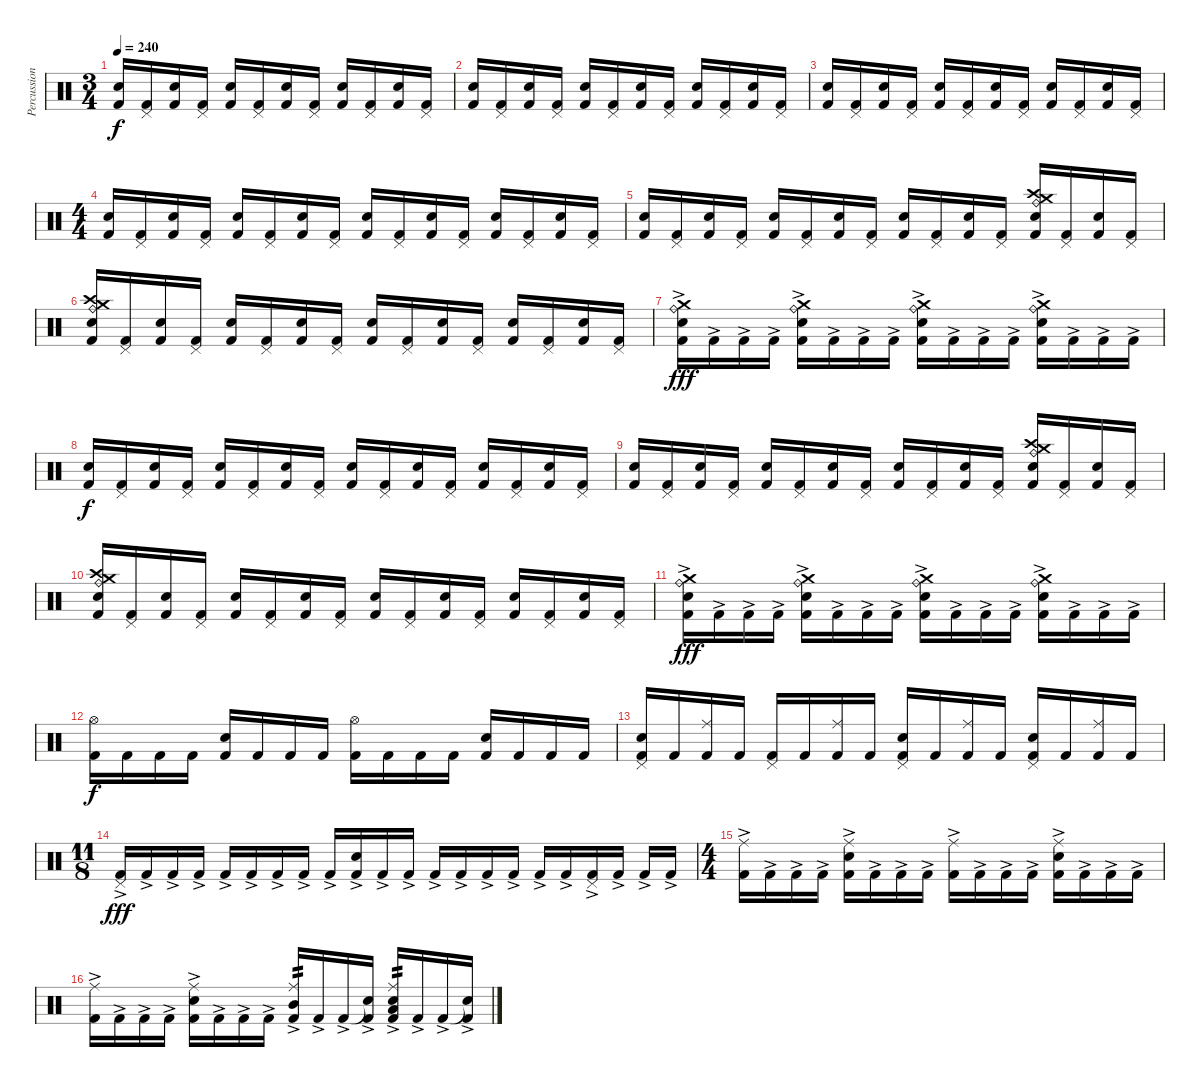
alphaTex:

\track ("Percussions" "Percussion") {instrument percussion}
\staff {score}
\articulation defaults
\ts (3 4)
\tempo 240
\clef neutral
\ks c
("Snare (hit) 2" "Kick (hit) 2").16{dy f} ("Pedal Hi-Hat (hit)" "Kick (hit) 2").16 ("Snare (hit) 2" "Kick (hit) 2").16 ("Pedal Hi-Hat (hit)" "Kick (hit) 2").16 ("Snare (hit) 2" "Kick (hit) 2").16 ("Pedal Hi-Hat (hit)" "Kick (hit) 2").16 ("Snare (hit) 2" "Kick (hit) 2").16 ("Pedal Hi-Hat (hit)" "Kick (hit) 2").16 ("Snare (hit) 2" "Kick (hit) 2").16 ("Pedal Hi-Hat (hit)" "Kick (hit) 2").16 ("Snare (hit) 2" "Kick (hit) 2").16 ("Pedal Hi-Hat (hit)" "Kick (hit) 2").16 |
("Snare (hit) 2" "Kick (hit) 2").16 ("Pedal Hi-Hat (hit)" "Kick (hit) 2").16 ("Snare (hit) 2" "Kick (hit) 2").16 ("Pedal Hi-Hat (hit)" "Kick (hit) 2").16 ("Snare (hit) 2" "Kick (hit) 2").16 ("Pedal Hi-Hat (hit)" "Kick (hit) 2").16 ("Snare (hit) 2" "Kick (hit) 2").16 ("Pedal Hi-Hat (hit)" "Kick (hit) 2").16 ("Snare (hit) 2" "Kick (hit) 2").16 ("Pedal Hi-Hat (hit)" "Kick (hit) 2").16 ("Snare (hit) 2" "Kick (hit) 2").16 ("Pedal Hi-Hat (hit)" "Kick (hit) 2").16 |
("Snare (hit) 2" "Kick (hit) 2").16 ("Pedal Hi-Hat (hit)" "Kick (hit) 2").16 ("Snare (hit) 2" "Kick (hit) 2").16 ("Pedal Hi-Hat (hit)" "Kick (hit) 2").16 ("Snare (hit) 2" "Kick (hit) 2").16 ("Pedal Hi-Hat (hit)" "Kick (hit) 2").16 ("Snare (hit) 2" "Kick (hit) 2").16 ("Pedal Hi-Hat (hit)" "Kick (hit) 2").16 ("Snare (hit) 2" "Kick (hit) 2").16 ("Pedal Hi-Hat (hit)" "Kick (hit) 2").16 ("Snare (hit) 2" "Kick (hit) 2").16 ("Pedal Hi-Hat (hit)" "Kick (hit) 2").16 |
\ts (4 4)
("Snare (hit) 2" "Kick (hit) 2").16 ("Pedal Hi-Hat (hit)" "Kick (hit) 2").16 ("Snare (hit) 2" "Kick (hit) 2").16 ("Pedal Hi-Hat (hit)" "Kick (hit) 2").16 ("Snare (hit) 2" "Kick (hit) 2").16 ("Pedal Hi-Hat (hit)" "Kick (hit) 2").16 ("Snare (hit) 2" "Kick (hit) 2").16 ("Pedal Hi-Hat (hit)" "Kick (hit) 2").16 ("Snare (hit) 2" "Kick (hit) 2").16 ("Pedal Hi-Hat (hit)" "Kick (hit) 2").16 ("Snare (hit) 2" "Kick (hit) 2").16 ("Pedal Hi-Hat (hit)" "Kick (hit) 2").16 ("Snare (hit) 2" "Kick (hit) 2").16 ("Pedal Hi-Hat (hit)" "Kick (hit) 2").16 ("Snare (hit) 2" "Kick (hit) 2").16 ("Pedal Hi-Hat (hit)" "Kick (hit) 2").16 |
("Snare (hit) 2" "Kick (hit) 2").16 ("Pedal Hi-Hat (hit)" "Kick (hit) 2").16 ("Snare (hit) 2" "Kick (hit) 2").16 ("Pedal Hi-Hat (hit)" "Kick (hit) 2").16 ("Snare (hit) 2" "Kick (hit) 2").16 ("Pedal Hi-Hat (hit)" "Kick (hit) 2").16 ("Snare (hit) 2" "Kick (hit) 2").16 ("Pedal Hi-Hat (hit)" "Kick (hit) 2").16 ("Snare (hit) 2" "Kick (hit) 2").16 ("Pedal Hi-Hat (hit)" "Kick (hit) 2").16 ("Snare (hit) 2" "Kick (hit) 2").16 ("Pedal Hi-Hat (hit)" "Kick (hit) 2").16 ("Crash high (hit)" "Crash medium (hit)" "Ride (bell)" "Snare (hit) 2" "Kick (hit) 2").16 ("Pedal Hi-Hat (hit)" "Kick (hit) 2").16 ("Snare (hit) 2" "Kick (hit) 2").16 ("Pedal Hi-Hat (hit)" "Kick (hit) 2").16 |
("Crash high (hit)" "Crash medium (hit)" "Ride (bell)" "Snare (hit) 2" "Kick (hit) 2").16 ("Pedal Hi-Hat (hit)" "Kick (hit) 2").16 ("Snare (hit) 2" "Kick (hit) 2").16 ("Pedal Hi-Hat (hit)" "Kick (hit) 2").16 ("Snare (hit) 2" "Kick (hit) 2").16 ("Pedal Hi-Hat (hit)" "Kick (hit) 2").16 ("Snare (hit) 2" "Kick (hit) 2").16 ("Pedal Hi-Hat (hit)" "Kick (hit) 2").16 ("Snare (hit) 2" "Kick (hit) 2").16 ("Pedal Hi-Hat (hit)" "Kick (hit) 2").16 ("Snare (hit) 2" "Kick (hit) 2").16 ("Pedal Hi-Hat (hit)" "Kick (hit) 2").16 ("Snare (hit) 2" "Kick (hit) 2").16 ("Pedal Hi-Hat (hit)" "Kick (hit) 2").16 ("Snare (hit) 2" "Kick (hit) 2").16 ("Pedal Hi-Hat (hit)" "Kick (hit) 2").16 |
("Snare (hit) 2" "Crash medium (hit)" "Ride (bell)" "Kick (hit) 2"{ac}).16{dy fff} "Kick (hit) 2"{ac}.16 "Kick (hit) 2"{ac}.16 "Kick (hit) 2"{ac}.16 ("Snare (hit) 2" "Crash medium (hit)" "Ride (bell)" "Kick (hit) 2"{ac}).16 "Kick (hit) 2"{ac}.16 "Kick (hit) 2"{ac}.16 "Kick (hit) 2"{ac}.16 ("Snare (hit) 2" "Crash medium (hit)" "Ride (bell)" "Kick (hit) 2"{ac}).16 "Kick (hit) 2"{ac}.16 "Kick (hit) 2"{ac}.16 "Kick (hit) 2"{ac}.16 ("Snare (hit) 2" "Crash medium (hit)" "Ride (bell)" "Kick (hit) 2"{ac}).16 "Kick (hit) 2"{ac}.16 "Kick (hit) 2"{ac}.16 "Kick (hit) 2"{ac}.16 |
("Snare (hit) 2" "Kick (hit) 2").16{dy f} ("Pedal Hi-Hat (hit)" "Kick (hit) 2").16 ("Snare (hit) 2" "Kick (hit) 2").16 ("Pedal Hi-Hat (hit)" "Kick (hit) 2").16 ("Snare (hit) 2" "Kick (hit) 2").16 ("Pedal Hi-Hat (hit)" "Kick (hit) 2").16 ("Snare (hit) 2" "Kick (hit) 2").16 ("Pedal Hi-Hat (hit)" "Kick (hit) 2").16 ("Snare (hit) 2" "Kick (hit) 2").16 ("Pedal Hi-Hat (hit)" "Kick (hit) 2").16 ("Snare (hit) 2" "Kick (hit) 2").16 ("Pedal Hi-Hat (hit)" "Kick (hit) 2").16 ("Snare (hit) 2" "Kick (hit) 2").16 ("Pedal Hi-Hat (hit)" "Kick (hit) 2").16 ("Snare (hit) 2" "Kick (hit) 2").16 ("Pedal Hi-Hat (hit)" "Kick (hit) 2").16 |
("Snare (hit) 2" "Kick (hit) 2").16 ("Pedal Hi-Hat (hit)" "Kick (hit) 2").16 ("Snare (hit) 2" "Kick (hit) 2").16 ("Pedal Hi-Hat (hit)" "Kick (hit) 2").16 ("Snare (hit) 2" "Kick (hit) 2").16 ("Pedal Hi-Hat (hit)" "Kick (hit) 2").16 ("Snare (hit) 2" "Kick (hit) 2").16 ("Pedal Hi-Hat (hit)" "Kick (hit) 2").16 ("Snare (hit) 2" "Kick (hit) 2").16 ("Pedal Hi-Hat (hit)" "Kick (hit) 2").16 ("Snare (hit) 2" "Kick (hit) 2").16 ("Pedal Hi-Hat (hit)" "Kick (hit) 2").16 ("Crash high (hit)" "Crash medium (hit)" "Ride (bell)" "Snare (hit) 2" "Kick (hit) 2").16 ("Pedal Hi-Hat (hit)" "Kick (hit) 2").16 ("Snare (hit) 2" "Kick (hit) 2").16 ("Pedal Hi-Hat (hit)" "Kick (hit) 2").16 |
("Crash high (hit)" "Crash medium (hit)" "Ride (bell)" "Snare (hit) 2" "Kick (hit) 2").16 ("Pedal Hi-Hat (hit)" "Kick (hit) 2").16 ("Snare (hit) 2" "Kick (hit) 2").16 ("Pedal Hi-Hat (hit)" "Kick (hit) 2").16 ("Snare (hit) 2" "Kick (hit) 2").16 ("Pedal Hi-Hat (hit)" "Kick (hit) 2").16 ("Snare (hit) 2" "Kick (hit) 2").16 ("Pedal Hi-Hat (hit)" "Kick (hit) 2").16 ("Snare (hit) 2" "Kick (hit) 2").16 ("Pedal Hi-Hat (hit)" "Kick (hit) 2").16 ("Snare (hit) 2" "Kick (hit) 2").16 ("Pedal Hi-Hat (hit)" "Kick (hit) 2").16 ("Snare (hit) 2" "Kick (hit) 2").16 ("Pedal Hi-Hat (hit)" "Kick (hit) 2").16 ("Snare (hit) 2" "Kick (hit) 2").16 ("Pedal Hi-Hat (hit)" "Kick (hit) 2").16 |
("Snare (hit) 2" "Crash medium (hit)" "Ride (bell)" "Kick (hit) 2"{ac}).16{dy fff} "Kick (hit) 2"{ac}.16 "Kick (hit) 2"{ac}.16 "Kick (hit) 2"{ac}.16 ("Snare (hit) 2" "Crash medium (hit)" "Ride (bell)" "Kick (hit) 2"{ac}).16 "Kick (hit) 2"{ac}.16 "Kick (hit) 2"{ac}.16 "Kick (hit) 2"{ac}.16 ("Snare (hit) 2" "Crash medium (hit)" "Ride (bell)" "Kick (hit) 2"{ac}).16 "Kick (hit) 2"{ac}.16 "Kick (hit) 2"{ac}.16 "Kick (hit) 2"{ac}.16 ("Snare (hit) 2" "Crash medium (hit)" "Ride (bell)" "Kick (hit) 2"{ac}).16 "Kick (hit) 2"{ac}.16 "Kick (hit) 2"{ac}.16 "Kick (hit) 2"{ac}.16 |
("Hi-Hat (open)" "Kick (hit) 2").16{dy f} "Kick (hit) 2".16 "Kick (hit) 2".16 "Kick (hit) 2".16 ("Snare (hit) 2" "Kick (hit) 2").16 "Kick (hit) 2".16 "Kick (hit) 2".16 "Kick (hit) 2".16 ("Hi-Hat (open)" "Kick (hit) 2").16 "Kick (hit) 2".16 "Kick (hit) 2".16 "Kick (hit) 2".16 ("Snare (hit) 2" "Kick (hit) 2").16 "Kick (hit) 2".16 "Kick (hit) 2".16 "Kick (hit) 2".16 |
("Snare (hit) 2" "Pedal Hi-Hat (hit)" "Kick (hit) 2").16 "Kick (hit) 2".16 ("Ride (middle)" "Kick (hit) 2").16 "Kick (hit) 2".16 ("Pedal Hi-Hat (hit)" "Kick (hit) 2").16 "Kick (hit) 2".16 ("Ride (middle)" "Kick (hit) 2").16 "Kick (hit) 2".16 ("Snare (hit) 2" "Pedal Hi-Hat (hit)" "Kick (hit) 2").16 "Kick (hit) 2".16 ("Ride (middle)" "Kick (hit) 2").16 "Kick (hit) 2".16 ("Snare (hit) 2" "Pedal Hi-Hat (hit)" "Kick (hit) 2").16 "Kick (hit) 2".16 ("Ride (middle)" "Kick (hit) 2").16 "Kick (hit) 2".16 |
\ts (11 8)
("Pedal Hi-Hat (hit)" "Kick (hit) 2"{ac}).16{dy fff} "Kick (hit) 2"{ac}.16 "Kick (hit) 2"{ac}.16 "Kick (hit) 2"{ac}.16 "Kick (hit) 2"{ac}.16 "Kick (hit) 2"{ac}.16 "Kick (hit) 2"{ac}.16 "Kick (hit) 2"{ac}.16 "Kick (hit) 2"{ac}.16 ("Snare (hit) 2" "Kick (hit) 2"{ac}).16 "Kick (hit) 2"{ac}.16 "Kick (hit) 2"{ac}.16 "Kick (hit) 2"{ac}.16 "Kick (hit) 2"{ac}.16 "Kick (hit) 2"{ac}.16 "Kick (hit) 2"{ac}.16 "Kick (hit) 2"{ac}.16 "Kick (hit) 2"{ac}.16 ("Pedal Hi-Hat (hit)" "Kick (hit) 2"{ac}).16 "Kick (hit) 2"{ac}.16 "Kick (hit) 2"{ac}.16 "Kick (hit) 2"{ac}.16 |
\ts (4 4)
("Ride (middle)" "Kick (hit) 2"{ac}).16 "Kick (hit) 2"{ac}.16 "Kick (hit) 2"{ac}.16 "Kick (hit) 2"{ac}.16 ("Snare (hit) 2" "Ride (middle)" "Kick (hit) 2"{ac}).16 "Kick (hit) 2"{ac}.16 "Kick (hit) 2"{ac}.16 "Kick (hit) 2"{ac}.16 ("Ride (middle)" "Kick (hit) 2"{ac}).16 "Kick (hit) 2"{ac}.16 "Kick (hit) 2"{ac}.16 "Kick (hit) 2"{ac}.16 ("Snare (hit) 2" "Ride (middle)" "Kick (hit) 2"{ac}).16 "Kick (hit) 2"{ac}.16 "Kick (hit) 2"{ac}.16 "Kick (hit) 2"{ac}.16 |
("Ride (middle)" "Kick (hit) 2"{ac}).16 "Kick (hit) 2"{ac}.16 "Kick (hit) 2"{ac}.16 "Kick (hit) 2"{ac}.16 ("Snare (hit) 2" "Ride (middle)" "Kick (hit) 2"{ac}).16 "Kick (hit) 2"{ac}.16 "Kick (hit) 2"{ac}.16 "Kick (hit) 2"{ac}.16 ("Mid Tom (hit)"{ac} "Ride (middle)" "Kick (hit) 2"{ac}).16{tp 2} "Kick (hit) 2"{ac}.16 "Kick (hit) 2"{ac}.16 ("Snare (hit)"{t} "Kick (hit) 2"{ac}).16 ("Low Tom (hit)"{ac} "Snare (hit) 2" "Ride (middle)" "Kick (hit) 2"{ac}).16{tp 2} "Kick (hit) 2"{ac}.16 "Kick (hit) 2"{ac}.16 ("Snare (hit)"{t} "Kick (hit) 2"{ac}).16
